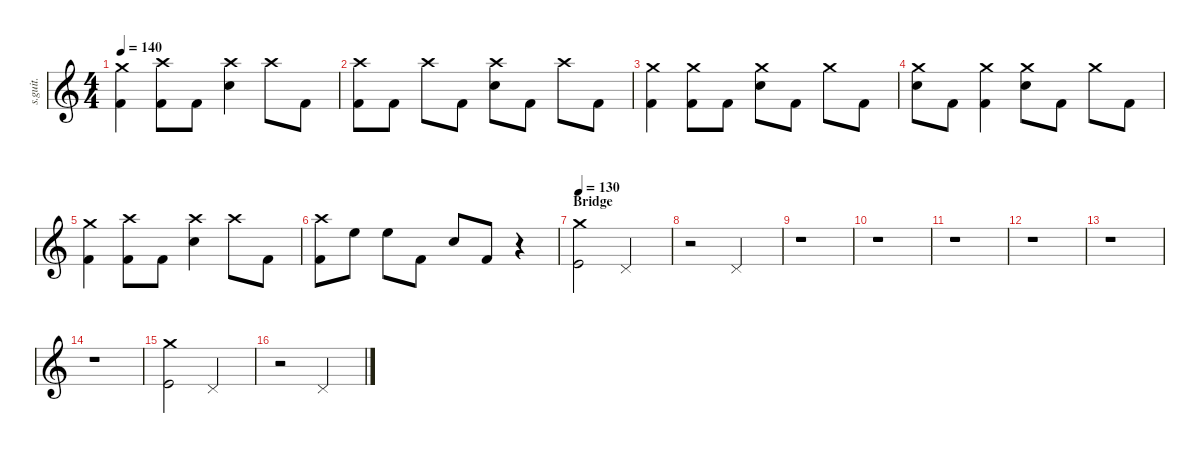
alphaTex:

\defaultSystemsLayout 4
\hideDynamics
\bracketExtendMode nobrackets
\track ("Abe Cunningham" "s.guit.") {instrument percussion}
\staff {score}
\articulation defaults
\ts (4 4)
\tempo 140
\clef g2
\ks c
("Crash medium (hit)" "Kick (hit) 2").4{lyrics (0 "") lyrics (1 "") lyrics (2 "") lyrics (3 "") lyrics (4 "") dy fff} ("Crash high (hit)" "Kick (hit) 2").8{lyrics (0 "") lyrics (1 "") lyrics (2 "") lyrics (3 "") lyrics (4 "")} "Kick (hit) 2".8{lyrics (0 "") lyrics (1 "") lyrics (2 "") lyrics (3 "") lyrics (4 "")} ("Crash high (hit)" "Snare (hit) 2").4{lyrics (0 "") lyrics (1 "") lyrics (2 "") lyrics (3 "") lyrics (4 "")} "Crash high (hit)".8{lyrics (0 "") lyrics (1 "") lyrics (2 "") lyrics (3 "") lyrics (4 "")} "Kick (hit) 2".8{lyrics (0 "") lyrics (1 "") lyrics (2 "") lyrics (3 "") lyrics (4 "")} |
("Crash high (hit)" "Kick (hit) 2").8{lyrics (0 "") lyrics (1 "") lyrics (2 "") lyrics (3 "") lyrics (4 "")} "Kick (hit) 2".8{lyrics (0 "") lyrics (1 "") lyrics (2 "") lyrics (3 "") lyrics (4 "")} "Crash high (hit)".8{lyrics (0 "") lyrics (1 "") lyrics (2 "") lyrics (3 "") lyrics (4 "")} "Kick (hit) 2".8{lyrics (0 "") lyrics (1 "") lyrics (2 "") lyrics (3 "") lyrics (4 "")} ("Crash high (hit)" "Snare (hit) 2").8{lyrics (0 "") lyrics (1 "") lyrics (2 "") lyrics (3 "") lyrics (4 "")} "Kick (hit) 2".8{lyrics (0 "") lyrics (1 "") lyrics (2 "") lyrics (3 "") lyrics (4 "")} "Crash high (hit)".8{lyrics (0 "") lyrics (1 "") lyrics (2 "") lyrics (3 "") lyrics (4 "")} "Kick (hit) 2".8{lyrics (0 "") lyrics (1 "") lyrics (2 "") lyrics (3 "") lyrics (4 "")} |
("Crash medium (hit)" "Kick (hit) 2").4{lyrics (0 "") lyrics (1 "") lyrics (2 "") lyrics (3 "") lyrics (4 "")} ("Crash medium (hit)" "Kick (hit) 2").8{lyrics (0 "") lyrics (1 "") lyrics (2 "") lyrics (3 "") lyrics (4 "")} "Kick (hit) 2".8{lyrics (0 "") lyrics (1 "") lyrics (2 "") lyrics (3 "") lyrics (4 "")} ("Crash medium (hit)" "Snare (hit) 2").8{lyrics (0 "") lyrics (1 "") lyrics (2 "") lyrics (3 "") lyrics (4 "")} "Kick (hit) 2".8{lyrics (0 "") lyrics (1 "") lyrics (2 "") lyrics (3 "") lyrics (4 "")} "Crash medium (hit)".8{lyrics (0 "") lyrics (1 "") lyrics (2 "") lyrics (3 "") lyrics (4 "")} "Kick (hit) 2".8{lyrics (0 "") lyrics (1 "") lyrics (2 "") lyrics (3 "") lyrics (4 "")} |
("Crash medium (hit)" "Snare (hit) 2").8{lyrics (0 "") lyrics (1 "") lyrics (2 "") lyrics (3 "") lyrics (4 "")} "Kick (hit) 2".8{lyrics (0 "") lyrics (1 "") lyrics (2 "") lyrics (3 "") lyrics (4 "")} ("Crash medium (hit)" "Kick (hit) 2").4{lyrics (0 "") lyrics (1 "") lyrics (2 "") lyrics (3 "") lyrics (4 "")} ("Crash medium (hit)" "Snare (hit) 2").8{lyrics (0 "") lyrics (1 "") lyrics (2 "") lyrics (3 "") lyrics (4 "")} "Kick (hit) 2".8{lyrics (0 "") lyrics (1 "") lyrics (2 "") lyrics (3 "") lyrics (4 "")} "Crash medium (hit)".8{lyrics (0 "") lyrics (1 "") lyrics (2 "") lyrics (3 "") lyrics (4 "")} "Kick (hit) 2".8{lyrics (0 "") lyrics (1 "") lyrics (2 "") lyrics (3 "") lyrics (4 "")} |
("Crash medium (hit)" "Kick (hit) 2").4{lyrics (0 "") lyrics (1 "") lyrics (2 "") lyrics (3 "") lyrics (4 "")} ("Crash high (hit)" "Kick (hit) 2").8{lyrics (0 "") lyrics (1 "") lyrics (2 "") lyrics (3 "") lyrics (4 "")} "Kick (hit) 2".8{lyrics (0 "") lyrics (1 "") lyrics (2 "") lyrics (3 "") lyrics (4 "")} ("Crash high (hit)" "Snare (hit) 2").4{lyrics (0 "") lyrics (1 "") lyrics (2 "") lyrics (3 "") lyrics (4 "")} "Crash high (hit)".8{lyrics (0 "") lyrics (1 "") lyrics (2 "") lyrics (3 "") lyrics (4 "")} "Kick (hit) 2".8{lyrics (0 "") lyrics (1 "") lyrics (2 "") lyrics (3 "") lyrics (4 "")} |
("Crash high (hit)" "Kick (hit) 2").8{lyrics (0 "") lyrics (1 "") lyrics (2 "") lyrics (3 "") lyrics (4 "")} "High Floor Tom (hit)".8{lyrics (0 "") lyrics (1 "") lyrics (2 "") lyrics (3 "") lyrics (4 "")} "High Floor Tom (hit)".8{lyrics (0 "") lyrics (1 "") lyrics (2 "") lyrics (3 "") lyrics (4 "")} "Kick (hit) 2".8{lyrics (0 "") lyrics (1 "") lyrics (2 "") lyrics (3 "") lyrics (4 "")} "Snare (hit) 2".8{lyrics (0 "") lyrics (1 "") lyrics (2 "") lyrics (3 "") lyrics (4 "")} "Kick (hit) 2".8{lyrics (0 "") lyrics (1 "") lyrics (2 "") lyrics (3 "") lyrics (4 "")} r.4 |
\section ("" "Bridge")
\tempo 130
("Crash medium (hit)" "Kick (hit)").2{lyrics (0 "") lyrics (1 "") lyrics (2 "") lyrics (3 "") lyrics (4 "")} "Pedal Hi-Hat (hit)".2{lyrics (0 "") lyrics (1 "") lyrics (2 "") lyrics (3 "") lyrics (4 "")} |
r.2 "Pedal Hi-Hat (hit)".2{lyrics (0 "") lyrics (1 "") lyrics (2 "") lyrics (3 "") lyrics (4 "")} |
r.1 |
r.1 |
r.1 |
r.1 |
r.1 |
r.1 |
("Crash medium (hit)" "Kick (hit)").2{lyrics (0 "") lyrics (1 "") lyrics (2 "") lyrics (3 "") lyrics (4 "")} "Pedal Hi-Hat (hit)".2{lyrics (0 "") lyrics (1 "") lyrics (2 "") lyrics (3 "") lyrics (4 "")} |
r.2 "Pedal Hi-Hat (hit)".2{lyrics (0 "") lyrics (1 "") lyrics (2 "") lyrics (3 "") lyrics (4 "")}
